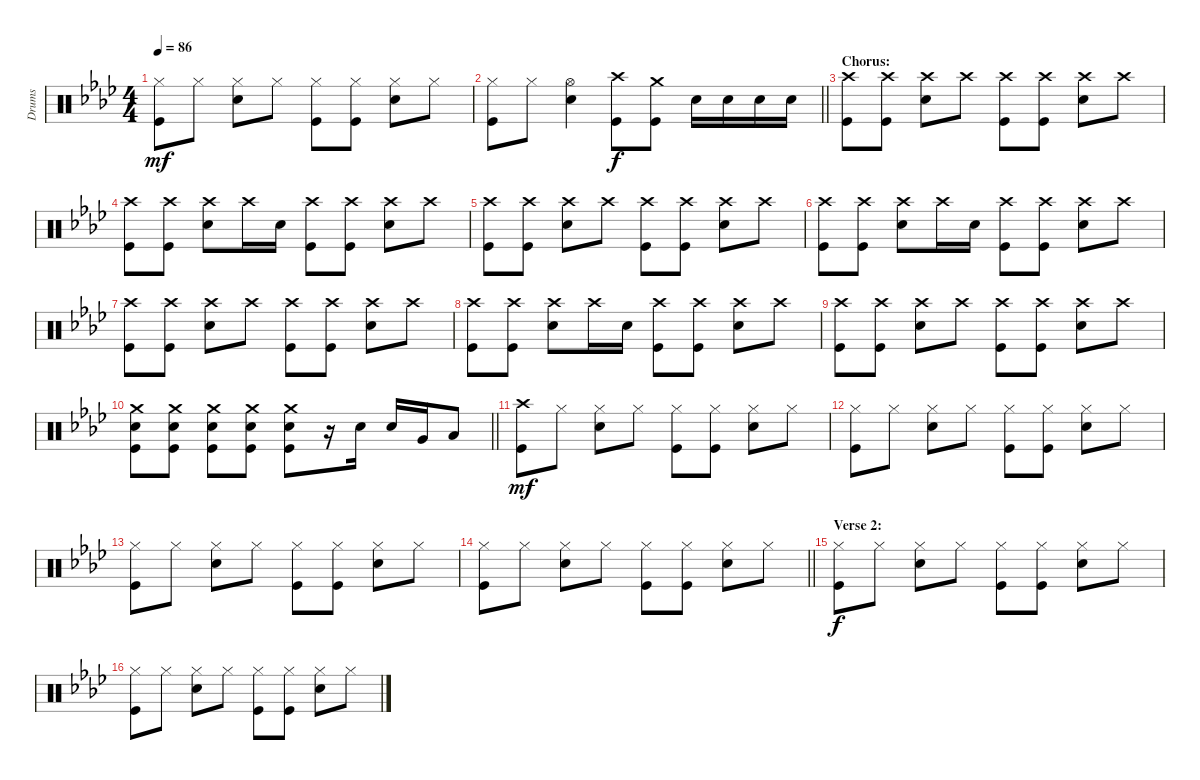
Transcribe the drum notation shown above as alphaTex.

\track ("Drums" "Drums") {instrument percussion}
\staff {score}
\articulation defaults
\ts (4 4)
\tempo 86
\clef neutral
\ks ab
("Hi-Hat (closed)" "Kick (hit)").8{dy mf} "Hi-Hat (closed)".8 ("Hi-Hat (closed)" "Snare (hit) 2").8 "Hi-Hat (closed)".8 ("Hi-Hat (closed)" "Kick (hit)").8 ("Hi-Hat (closed)" "Kick (hit)").8 ("Hi-Hat (closed)" "Snare (hit) 2").8 "Hi-Hat (closed)".8 |
\barLineRight lightlight
("Hi-Hat (closed)" "Kick (hit)").8 "Hi-Hat (closed)".8 ("Hi-Hat (open)" "Snare (hit) 2").4 ("Crash high (hit)" "Kick (hit)").8{dy f} ("Crash medium (hit)" "Kick (hit)").8 "Snare (hit) 2".16 "Snare (hit) 2".16 "Snare (hit) 2".16 "Snare (hit) 2".16 |
\section ("" "Chorus:")
("Crash high (hit)" "Kick (hit)").8 ("Crash high (hit)" "Kick (hit)").8 ("Crash high (hit)" "Snare (hit) 2").8 "Crash high (hit)".8 ("Crash high (hit)" "Kick (hit)").8 ("Crash high (hit)" "Kick (hit)").8 ("Crash high (hit)" "Snare (hit) 2").8 "Crash high (hit)".8 |
("Crash high (hit)" "Kick (hit)").8 ("Crash high (hit)" "Kick (hit)").8 ("Crash high (hit)" "Snare (hit) 2").8 "Crash high (hit)".16 "Snare (hit) 2".16 ("Kick (hit)" "Crash high (hit)").8 ("Kick (hit)" "Crash high (hit)").8 ("Snare (hit) 2" "Crash high (hit)").8 "Crash high (hit)".8 |
("Crash high (hit)" "Kick (hit)").8 ("Crash high (hit)" "Kick (hit)").8 ("Crash high (hit)" "Snare (hit) 2").8 "Crash high (hit)".8 ("Crash high (hit)" "Kick (hit)").8 ("Crash high (hit)" "Kick (hit)").8 ("Crash high (hit)" "Snare (hit) 2").8 "Crash high (hit)".8 |
("Crash high (hit)" "Kick (hit)").8 ("Crash high (hit)" "Kick (hit)").8 ("Crash high (hit)" "Snare (hit) 2").8 "Crash high (hit)".16 "Snare (hit) 2".16 ("Kick (hit)" "Crash high (hit)").8 ("Kick (hit)" "Crash high (hit)").8 ("Snare (hit) 2" "Crash high (hit)").8 "Crash high (hit)".8 |
("Crash high (hit)" "Kick (hit)").8 ("Crash high (hit)" "Kick (hit)").8 ("Crash high (hit)" "Snare (hit) 2").8 "Crash high (hit)".8 ("Crash high (hit)" "Kick (hit)").8 ("Crash high (hit)" "Kick (hit)").8 ("Crash high (hit)" "Snare (hit) 2").8 "Crash high (hit)".8 |
("Crash high (hit)" "Kick (hit)").8 ("Crash high (hit)" "Kick (hit)").8 ("Crash high (hit)" "Snare (hit) 2").8 "Crash high (hit)".16 "Snare (hit) 2".16 ("Kick (hit)" "Crash high (hit)").8 ("Kick (hit)" "Crash high (hit)").8 ("Snare (hit) 2" "Crash high (hit)").8 "Crash high (hit)".8 |
("Crash high (hit)" "Kick (hit)").8 ("Crash high (hit)" "Kick (hit)").8 ("Crash high (hit)" "Snare (hit) 2").8 "Crash high (hit)".8 ("Crash high (hit)" "Kick (hit)").8 ("Crash high (hit)" "Kick (hit)").8 ("Crash high (hit)" "Snare (hit) 2").8 "Crash high (hit)".8 |
\barLineRight lightlight
("Crash medium (hit)" "Kick (hit)" "Snare (hit) 2").8 ("Crash medium (hit)" "Kick (hit)" "Snare (hit) 2").8 ("Crash medium (hit)" "Kick (hit)" "Snare (hit) 2").8 ("Crash medium (hit)" "Kick (hit)" "Snare (hit) 2").8 ("Crash medium (hit)" "Kick (hit)" "Snare (hit) 2").8 r.16 "Snare (hit) 2".16 "Snare (hit) 2".16 "Very Low Tom (hit)".16 "Low Floor Tom (hit)".8 |
("Crash high (hit)" "Kick (hit)").8{dy mf} "Hi-Hat (closed)".8 ("Hi-Hat (closed)" "Snare (hit) 2").8 "Hi-Hat (closed)".8 ("Hi-Hat (closed)" "Kick (hit)").8 ("Hi-Hat (closed)" "Kick (hit)").8 ("Hi-Hat (closed)" "Snare (hit) 2").8 "Hi-Hat (closed)".8 |
("Hi-Hat (closed)" "Kick (hit)").8 "Hi-Hat (closed)".8 ("Hi-Hat (closed)" "Snare (hit) 2").8 "Hi-Hat (closed)".8 ("Hi-Hat (closed)" "Kick (hit)").8 ("Hi-Hat (closed)" "Kick (hit)").8 ("Hi-Hat (closed)" "Snare (hit) 2").8 "Hi-Hat (closed)".8 |
("Hi-Hat (closed)" "Kick (hit)").8 "Hi-Hat (closed)".8 ("Hi-Hat (closed)" "Snare (hit) 2").8 "Hi-Hat (closed)".8 ("Hi-Hat (closed)" "Kick (hit)").8 ("Hi-Hat (closed)" "Kick (hit)").8 ("Hi-Hat (closed)" "Snare (hit) 2").8 "Hi-Hat (closed)".8 |
\barLineRight lightlight
("Hi-Hat (closed)" "Kick (hit)").8 "Hi-Hat (closed)".8 ("Hi-Hat (closed)" "Snare (hit) 2").8 "Hi-Hat (closed)".8 ("Hi-Hat (closed)" "Kick (hit)").8 ("Hi-Hat (closed)" "Kick (hit)").8 ("Hi-Hat (closed)" "Snare (hit) 2").8 "Hi-Hat (closed)".8 |
\section ("" "Verse 2:")
("Hi-Hat (closed)" "Kick (hit)").8{dy f} "Hi-Hat (closed)".8 ("Hi-Hat (closed)" "Snare (hit) 2").8 "Hi-Hat (closed)".8 ("Hi-Hat (closed)" "Kick (hit)").8 ("Hi-Hat (closed)" "Kick (hit)").8 ("Hi-Hat (closed)" "Snare (hit) 2").8 "Hi-Hat (closed)".8 |
("Hi-Hat (closed)" "Kick (hit)").8 "Hi-Hat (closed)".8 ("Hi-Hat (closed)" "Snare (hit) 2").8 "Hi-Hat (closed)".8 ("Hi-Hat (closed)" "Kick (hit)").8 ("Hi-Hat (closed)" "Kick (hit)").8 ("Hi-Hat (closed)" "Snare (hit) 2").8 "Hi-Hat (closed)".8
